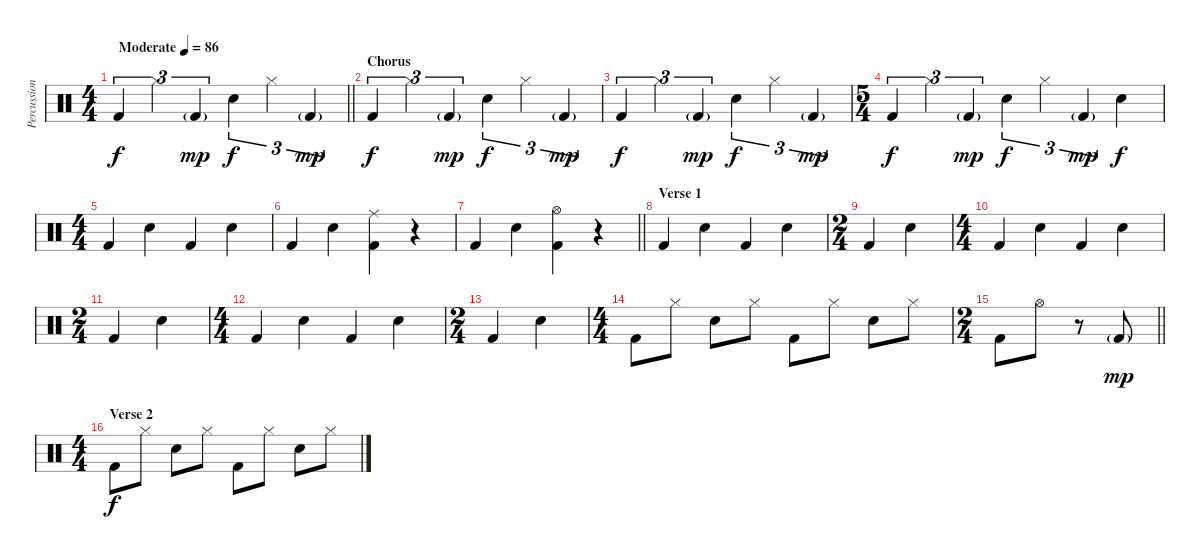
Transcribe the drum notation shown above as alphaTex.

\track ("Percussion" "Percussion") {instrument percussion}
\staff {score}
\articulation defaults
\ts (4 4)
\tempo (86 "Moderate")
\clef neutral
\barLineRight lightlight
\ks c "Kick (hit) 2".4{tu (3 2) dy f} "Hi-Hat (closed)".4{tu (3 2)} "Kick (hit) 2"{g}.4{tu (3 2) dy mp} "Snare (hit) 2".4{tu (3 2) dy f} "Hi-Hat (closed)".4{tu (3 2)} "Kick (hit) 2"{g}.4{tu (3 2) dy mp}
|
\section ("" "Chorus")
"Kick (hit) 2".4{tu (3 2) dy f} "Hi-Hat (closed)".4{tu (3 2)} "Kick (hit) 2"{g}.4{tu (3 2) dy mp} "Snare (hit) 2".4{tu (3 2) dy f} "Hi-Hat (closed)".4{tu (3 2)} "Kick (hit) 2"{g}.4{tu (3 2) dy mp} |
"Kick (hit) 2".4{tu (3 2) dy f} "Hi-Hat (closed)".4{tu (3 2)} "Kick (hit) 2"{g}.4{tu (3 2) dy mp} "Snare (hit) 2".4{tu (3 2) dy f} "Hi-Hat (closed)".4{tu (3 2)} "Kick (hit) 2"{g}.4{tu (3 2) dy mp} |
\ts (5 4)
"Kick (hit) 2".4{tu (3 2) dy f} "Hi-Hat (closed)".4{tu (3 2)} "Kick (hit) 2"{g}.4{tu (3 2) dy mp} "Snare (hit) 2".4{tu (3 2) dy f} "Hi-Hat (closed)".4{tu (3 2)} "Kick (hit) 2"{g}.4{tu (3 2) dy mp} "Snare (hit) 2".4{dy f} |
\ts (4 4)
"Kick (hit) 2".4 "Snare (hit) 2".4 "Kick (hit) 2".4 "Snare (hit) 2".4 |
"Kick (hit) 2".4 "Snare (hit) 2".4 ("Ride (middle)" "Kick (hit) 2").4 r.4 |
\barLineRight lightlight "Kick (hit) 2".4 "Snare (hit) 2".4
("Hi-Hat (open)" "Kick (hit) 2").4 r.4 |
\section ("" "Verse 1")
"Kick (hit) 2".4 "Snare (hit) 2".4 "Kick (hit) 2".4 "Snare (hit) 2".4 |
\ts (2 4)
"Kick (hit) 2".4 "Snare (hit) 2".4 |
\ts (4 4)
"Kick (hit) 2".4 "Snare (hit) 2".4 "Kick (hit) 2".4 "Snare (hit) 2".4 |
\ts (2 4)
"Kick (hit) 2".4 "Snare (hit) 2".4 |
\ts (4 4)
"Kick (hit) 2".4 "Snare (hit) 2".4 "Kick (hit) 2".4 "Snare (hit) 2".4 |
\ts (2 4)
"Kick (hit) 2".4 "Snare (hit) 2".4 |
\ts (4 4)
"Kick (hit) 2".8 "Hi-Hat (closed)".8 "Snare (hit) 2".8 "Hi-Hat (closed)".8 "Kick (hit) 2".8 "Hi-Hat (closed)".8 "Snare (hit) 2".8 "Hi-Hat (closed)".8 |
\ts (2 4)
\barLineRight lightlight "Kick (hit) 2".8 "Hi-Hat (open)".8
r.8 "Kick (hit) 2"{g}.8{dy mp} |
\ts (4 4)
\section ("" "Verse 2")
"Kick (hit) 2".8{dy f} "Hi-Hat (closed)".8 "Snare (hit) 2".8 "Hi-Hat (closed)".8 "Kick (hit) 2".8 "Hi-Hat (closed)".8 "Snare (hit) 2".8 "Hi-Hat (closed)".8
